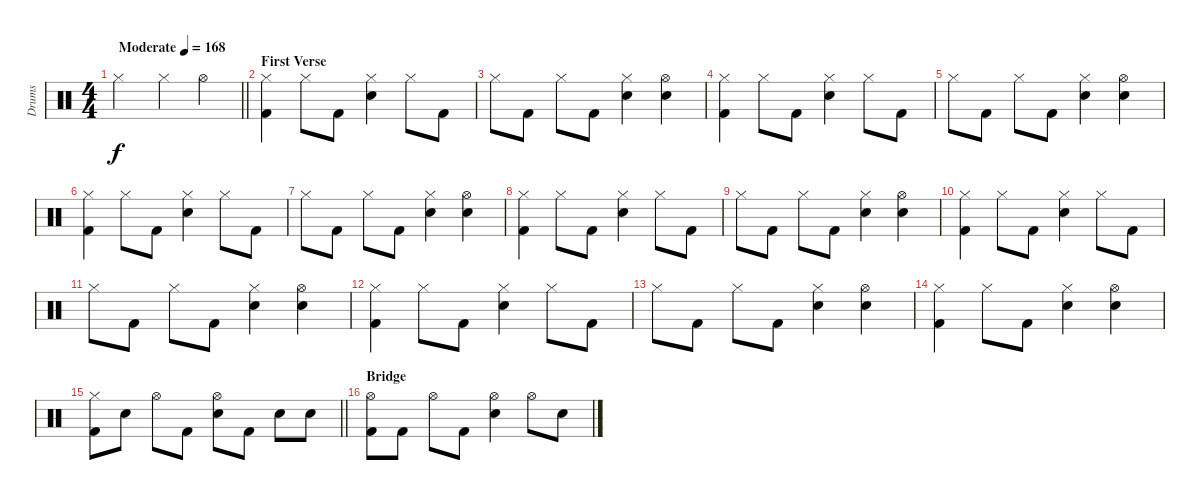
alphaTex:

\track ("Drums" "Drums") {instrument percussion}
\staff {score}
\articulation defaults
\ts (4 4)
\tempo (168 "Moderate")
\clef neutral
\barLineRight lightlight
\ks c "Hi-Hat (closed)".2{dy f} "Hi-Hat (closed)".4 "Hi-Hat (open)".4
|
\section ("" "First Verse")
("Hi-Hat (closed)" "Kick (hit) 2").4 "Hi-Hat (closed)".8 "Kick (hit) 2".8 ("Hi-Hat (closed)" "Snare (hit) 2").4 "Hi-Hat (closed)".8 "Kick (hit) 2".8 |
"Hi-Hat (closed)".8 "Kick (hit) 2".8 "Hi-Hat (closed)".8 "Kick (hit) 2".8 ("Hi-Hat (closed)" "Snare (hit) 2").4 ("Hi-Hat (open)" "Snare (hit) 2").4 |
("Hi-Hat (closed)" "Kick (hit) 2").4 "Hi-Hat (closed)".8 "Kick (hit) 2".8 ("Hi-Hat (closed)" "Snare (hit) 2").4 "Hi-Hat (closed)".8 "Kick (hit) 2".8 |
"Hi-Hat (closed)".8 "Kick (hit) 2".8 "Hi-Hat (closed)".8 "Kick (hit) 2".8 ("Hi-Hat (closed)" "Snare (hit) 2").4 ("Hi-Hat (open)" "Snare (hit) 2").4 |
("Hi-Hat (closed)" "Kick (hit) 2").4 "Hi-Hat (closed)".8 "Kick (hit) 2".8 ("Hi-Hat (closed)" "Snare (hit) 2").4 "Hi-Hat (closed)".8 "Kick (hit) 2".8 |
"Hi-Hat (closed)".8 "Kick (hit) 2".8 "Hi-Hat (closed)".8 "Kick (hit) 2".8 ("Hi-Hat (closed)" "Snare (hit) 2").4 ("Hi-Hat (open)" "Snare (hit) 2").4 |
("Hi-Hat (closed)" "Kick (hit) 2").4 "Hi-Hat (closed)".8 "Kick (hit) 2".8 ("Hi-Hat (closed)" "Snare (hit) 2").4 "Hi-Hat (closed)".8 "Kick (hit) 2".8 |
"Hi-Hat (closed)".8 "Kick (hit) 2".8 "Hi-Hat (closed)".8 "Kick (hit) 2".8 ("Hi-Hat (closed)" "Snare (hit) 2").4 ("Hi-Hat (open)" "Snare (hit) 2").4 |
("Hi-Hat (closed)" "Kick (hit) 2").4 "Hi-Hat (closed)".8 "Kick (hit) 2".8 ("Hi-Hat (closed)" "Snare (hit) 2").4 "Hi-Hat (closed)".8 "Kick (hit) 2".8 |
"Hi-Hat (closed)".8 "Kick (hit) 2".8 "Hi-Hat (closed)".8 "Kick (hit) 2".8 ("Hi-Hat (closed)" "Snare (hit) 2").4 ("Hi-Hat (open)" "Snare (hit) 2").4 |
("Hi-Hat (closed)" "Kick (hit) 2").4 "Hi-Hat (closed)".8 "Kick (hit) 2".8 ("Hi-Hat (closed)" "Snare (hit) 2").4 "Hi-Hat (closed)".8 "Kick (hit) 2".8 |
"Hi-Hat (closed)".8 "Kick (hit) 2".8 "Hi-Hat (closed)".8 "Kick (hit) 2".8 ("Hi-Hat (closed)" "Snare (hit) 2").4 ("Hi-Hat (open)" "Snare (hit) 2").4 |
("Hi-Hat (closed)" "Kick (hit) 2").4 "Hi-Hat (closed)".8 "Kick (hit) 2".8 ("Hi-Hat (closed)" "Snare (hit) 2").4 ("Hi-Hat (open)" "Snare (hit) 2").4 |
\barLineRight lightlight
("Hi-Hat (closed)" "Kick (hit) 2").8 "Snare (hit) 2".8 "Hi-Hat (open)".8 "Kick (hit) 2".8 ("Hi-Hat (open)" "Snare (hit) 2").8 "Kick (hit) 2".8 "Snare (hit) 2".8 "Snare (hit) 2".8 |
\section ("" "Bridge")
("Hi-Hat (open)" "Kick (hit) 2").8 "Kick (hit) 2".8 "Hi-Hat (open)".8 "Kick (hit) 2".8 ("Hi-Hat (open)" "Snare (hit) 2").4 "Hi-Hat (open)".8 "Snare (hit) 2".8
